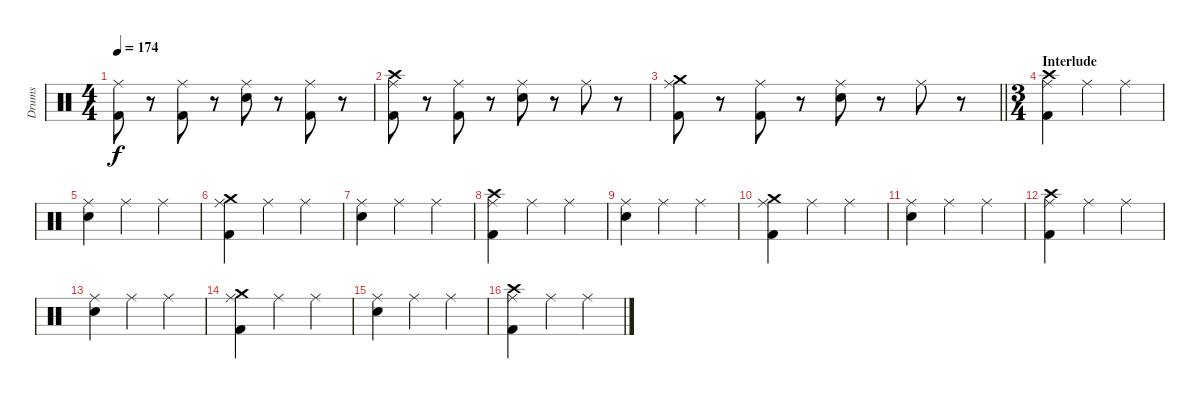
\track ("Drums" "Drums") {instrument percussion}
\staff {score}
\articulation defaults
\ts (4 4)
\tempo 174
\clef neutral
\ks c
("Ride (middle)" "Kick (hit) 2").8{dy f} r.8 ("Ride (middle)" "Kick (hit) 2").8 r.8 ("Ride (middle)" "Snare (hit) 2").8 r.8 ("Ride (middle)" "Kick (hit) 2").8 r.8 |
("Ride (middle)" "Crash high (hit)" "Kick (hit) 2").8 r.8 ("Ride (middle)" "Kick (hit) 2").8 r.8 ("Ride (middle)" "Snare (hit) 2").8 r.8 "Ride (middle)".8 r.8 |
\barLineRight lightlight
("Ride (middle)" "Crash medium (hit)" "Kick (hit) 2").8 r.8 ("Ride (middle)" "Kick (hit) 2").8 r.8 ("Ride (middle)" "Snare (hit) 2").8 r.8 "Ride (middle)".8 r.8 |
\ts (3 4)
\section ("" "Interlude")
("Crash high (hit)" "Ride (middle)" "Kick (hit) 2").4 "Ride (middle)".4 "Ride (middle)".4 |
("Ride (middle)" "Snare (hit) 2").4 "Ride (middle)".4 "Ride (middle)".4 |
("Crash medium (hit)" "Ride (middle)" "Kick (hit) 2").4 "Ride (middle)".4 "Ride (middle)".4 |
("Ride (middle)" "Snare (hit) 2").4 "Ride (middle)".4 "Ride (middle)".4 |
("Crash high (hit)" "Ride (middle)" "Kick (hit) 2").4 "Ride (middle)".4 "Ride (middle)".4 |
("Ride (middle)" "Snare (hit) 2").4 "Ride (middle)".4 "Ride (middle)".4 |
("Crash medium (hit)" "Ride (middle)" "Kick (hit) 2").4 "Ride (middle)".4 "Ride (middle)".4 |
("Ride (middle)" "Snare (hit) 2").4 "Ride (middle)".4 "Ride (middle)".4 |
("Crash high (hit)" "Ride (middle)" "Kick (hit) 2").4 "Ride (middle)".4 "Ride (middle)".4 |
("Ride (middle)" "Snare (hit) 2").4 "Ride (middle)".4 "Ride (middle)".4 |
("Crash medium (hit)" "Ride (middle)" "Kick (hit) 2").4 "Ride (middle)".4 "Ride (middle)".4 |
("Ride (middle)" "Snare (hit) 2").4 "Ride (middle)".4 "Ride (middle)".4 |
("Crash high (hit)" "Ride (middle)" "Kick (hit) 2").4 "Ride (middle)".4 "Ride (middle)".4
